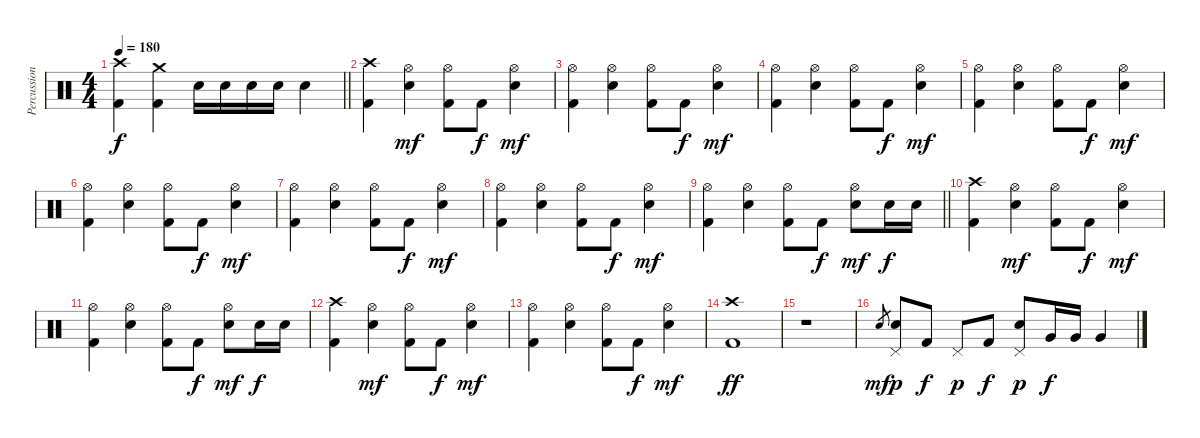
\track ("Percussion" "Percussion") {instrument percussion}
\staff {score}
\articulation defaults
\ts (4 4)
\tempo 180
\clef neutral
\barLineRight lightlight
\ks c
("Crash high (hit)" "Kick (hit) 2").4{dy f} ("Crash medium (hit)" "Kick (hit) 2").4 "Electric Snare (hit)".16 "Electric Snare (hit)".16 "Electric Snare (hit)".16 "Electric Snare (hit)".16 "Electric Snare (hit)".4 |
("Crash high (hit)" "Kick (hit) 2").4 ("Hi-Hat (open)" "Electric Snare (hit)").4{dy mf} ("Hi-Hat (open)" "Kick (hit) 2").8 "Kick (hit) 2".8{dy f} ("Hi-Hat (open)" "Electric Snare (hit)").4{dy mf} |
("Hi-Hat (open)" "Kick (hit) 2").4 ("Hi-Hat (open)" "Electric Snare (hit)").4 ("Hi-Hat (open)" "Kick (hit) 2").8 "Kick (hit) 2".8{dy f} ("Hi-Hat (open)" "Electric Snare (hit)").4{dy mf} |
("Hi-Hat (open)" "Kick (hit) 2").4 ("Hi-Hat (open)" "Electric Snare (hit)").4 ("Hi-Hat (open)" "Kick (hit) 2").8 "Kick (hit) 2".8{dy f} ("Hi-Hat (open)" "Electric Snare (hit)").4{dy mf} |
("Hi-Hat (open)" "Kick (hit) 2").4 ("Hi-Hat (open)" "Electric Snare (hit)").4 ("Hi-Hat (open)" "Kick (hit) 2").8 "Kick (hit) 2".8{dy f} ("Hi-Hat (open)" "Electric Snare (hit)").4{dy mf} |
("Hi-Hat (open)" "Kick (hit) 2").4 ("Hi-Hat (open)" "Electric Snare (hit)").4 ("Hi-Hat (open)" "Kick (hit) 2").8 "Kick (hit) 2".8{dy f} ("Hi-Hat (open)" "Electric Snare (hit)").4{dy mf} |
("Hi-Hat (open)" "Kick (hit) 2").4 ("Hi-Hat (open)" "Electric Snare (hit)").4 ("Hi-Hat (open)" "Kick (hit) 2").8 "Kick (hit) 2".8{dy f} ("Hi-Hat (open)" "Electric Snare (hit)").4{dy mf} |
("Hi-Hat (open)" "Kick (hit) 2").4 ("Hi-Hat (open)" "Electric Snare (hit)").4 ("Hi-Hat (open)" "Kick (hit) 2").8 "Kick (hit) 2".8{dy f} ("Hi-Hat (open)" "Electric Snare (hit)").4{dy mf} |
\barLineRight lightlight
("Hi-Hat (open)" "Kick (hit) 2").4 ("Hi-Hat (open)" "Electric Snare (hit)").4 ("Hi-Hat (open)" "Kick (hit) 2").8 "Kick (hit) 2".8{dy f} ("Hi-Hat (open)" "Electric Snare (hit)").8{dy mf} "Electric Snare (hit)".16{dy f} "Electric Snare (hit)".16 |
("Crash high (hit)" "Kick (hit) 2").4 ("Hi-Hat (open)" "Electric Snare (hit)").4{dy mf} ("Hi-Hat (open)" "Kick (hit) 2").8 "Kick (hit) 2".8{dy f} ("Hi-Hat (open)" "Electric Snare (hit)").4{dy mf} |
("Hi-Hat (open)" "Kick (hit) 2").4 ("Hi-Hat (open)" "Electric Snare (hit)").4 ("Hi-Hat (open)" "Kick (hit) 2").8 "Kick (hit) 2".8{dy f} ("Hi-Hat (open)" "Electric Snare (hit)").8{dy mf} "Electric Snare (hit)".16{dy f} "Electric Snare (hit)".16 |
("Crash high (hit)" "Kick (hit) 2").4 ("Hi-Hat (open)" "Electric Snare (hit)").4{dy mf} ("Hi-Hat (open)" "Kick (hit) 2").8 "Kick (hit) 2".8{dy f} ("Hi-Hat (open)" "Electric Snare (hit)").4{dy mf} |
("Hi-Hat (open)" "Kick (hit) 2").4 ("Hi-Hat (open)" "Electric Snare (hit)").4 ("Hi-Hat (open)" "Kick (hit) 2").8 "Kick (hit) 2".8{dy f} ("Hi-Hat (open)" "Electric Snare (hit)").4{dy mf} |
("Crash high (hit)" "Kick (hit) 2").1{dy ff} |
r.1 |
"Electric Snare (hit)".8{gr dy mf} ("Pedal Hi-Hat (hit)" "Electric Snare (hit)").8{dy p} "Kick (hit) 2".8{dy f} "Pedal Hi-Hat (hit)".8{dy p} "Kick (hit) 2".8{dy f} ("Pedal Hi-Hat (hit)" "Electric Snare (hit)").8{dy p} "Very Low Tom (hit)".16{dy f} "Very Low Tom (hit)".16 "Very Low Tom (hit)".4
